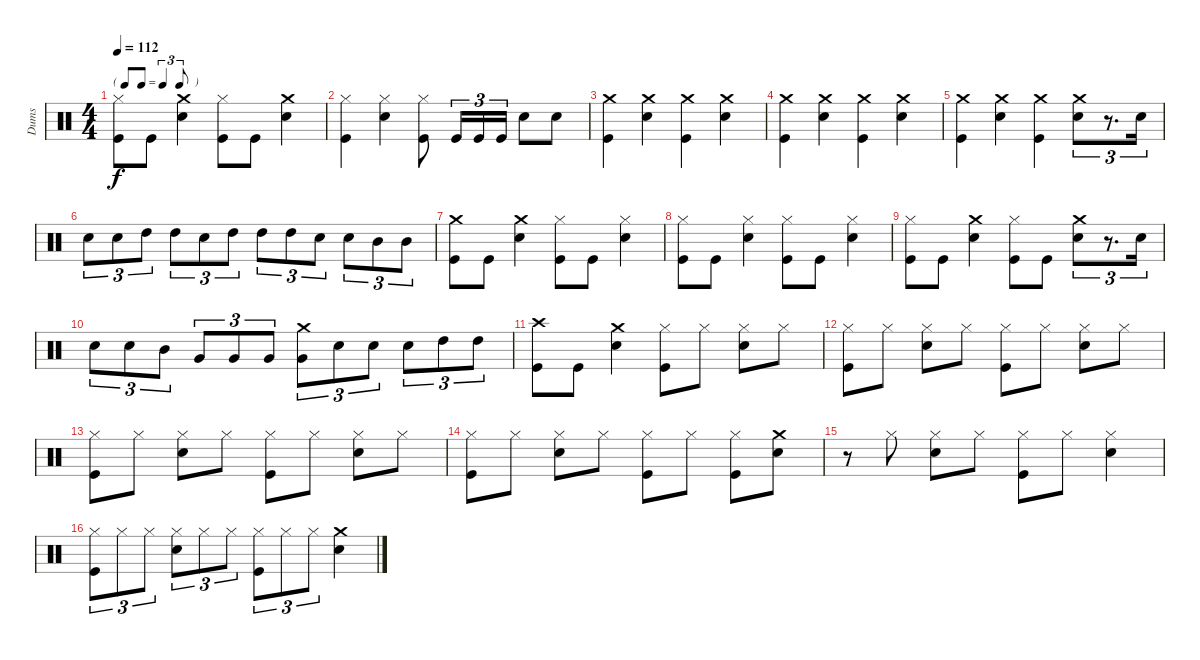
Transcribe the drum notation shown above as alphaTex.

\track ("Dums" "Dums") {instrument percussion}
\staff {score}
\articulation defaults
\ts (4 4)
\tf triplet8th
\tempo 112
\clef neutral
\ks c
("Kick (hit)" "Hi-Hat (closed)").8{dy f} "Kick (hit)".8 ("Electric Snare (hit)" "Crash medium (hit)").4 ("Kick (hit)" "Hi-Hat (closed)").8 "Kick (hit)".8 ("Electric Snare (hit)" "Crash medium (hit)").4 |
("Kick (hit)" "Hi-Hat (closed)").4 ("Electric Snare (hit)" "Hi-Hat (closed)").4 ("Kick (hit)" "Hi-Hat (closed)").8 "Kick (hit)".16{tu (3 2)} "Kick (hit)".16{tu (3 2)} "Kick (hit)".16{tu (3 2)} "Electric Snare (hit)".8 "Electric Snare (hit)".8 |
("Kick (hit)" "Crash medium (hit)").4 ("Electric Snare (hit)" "Crash medium (hit)").4 ("Kick (hit)" "Crash medium (hit)").4 ("Electric Snare (hit)" "Crash medium (hit)").4 |
("Kick (hit)" "Crash medium (hit)").4 ("Electric Snare (hit)" "Crash medium (hit)").4 ("Kick (hit)" "Crash medium (hit)").4 ("Electric Snare (hit)" "Crash medium (hit)").4 |
("Kick (hit)" "Crash medium (hit)").4 ("Electric Snare (hit)" "Crash medium (hit)").4 ("Kick (hit)" "Crash medium (hit)").4 ("Electric Snare (hit)" "Crash medium (hit)").8{tu (3 2)} r.8{d tu (3 2)} "Electric Snare (hit)".16{tu (3 2)} |
"Electric Snare (hit)".8{tu (3 2)} "Electric Snare (hit)".8{tu (3 2)} "High Tom (hit)".8{tu (3 2)} "High Tom (hit)".8{tu (3 2)} "Electric Snare (hit)".8{tu (3 2)} "High Tom (hit)".8{tu (3 2)} "High Tom (hit)".8{tu (3 2)} "High Tom (hit)".8{tu (3 2)} "Electric Snare (hit)".8{tu (3 2)} "Electric Snare (hit)".8{tu (3 2)} "Mid Tom (hit)".8{tu (3 2)} "Mid Tom (hit)".8{tu (3 2)} |
("Kick (hit)" "Crash medium (hit)").8 "Kick (hit)".8 ("Electric Snare (hit)" "Crash medium (hit)").4 ("Kick (hit)" "Hi-Hat (closed)").8 "Kick (hit)".8 ("Electric Snare (hit)" "Hi-Hat (closed)").4 |
("Kick (hit)" "Hi-Hat (closed)").8 "Kick (hit)".8 ("Electric Snare (hit)" "Hi-Hat (closed)").4 ("Kick (hit)" "Hi-Hat (closed)").8 "Kick (hit)".8 ("Electric Snare (hit)" "Hi-Hat (closed)").4 |
("Kick (hit)" "Hi-Hat (closed)").8 "Kick (hit)".8 ("Electric Snare (hit)" "Crash medium (hit)").4 ("Kick (hit)" "Hi-Hat (closed)").8 "Kick (hit)".8 ("Electric Snare (hit)" "Crash medium (hit)").8{tu (3 2)} r.8{d tu (3 2)} "Electric Snare (hit)".16{tu (3 2)} |
"Electric Snare (hit)".8{tu (3 2)} "Electric Snare (hit)".8{tu (3 2)} "Mid Tom (hit)".8{tu (3 2)} "Very Low Tom (hit)".8{tu (3 2)} "Very Low Tom (hit)".8{tu (3 2)} "Very Low Tom (hit)".8{tu (3 2)} ("Very Low Tom (hit)" "Crash medium (hit)").8{tu (3 2)} "Electric Snare (hit)".8{tu (3 2)} "Electric Snare (hit)".8{tu (3 2)} "Electric Snare (hit)".8{tu (3 2)} "High Tom (hit)".8{tu (3 2)} "High Tom (hit)".8{tu (3 2)} |
("Kick (hit)" "Crash high (hit)").8 "Kick (hit)".8 ("Electric Snare (hit)" "Crash medium (hit)").4 ("Kick (hit)" "Hi-Hat (closed)").8 "Hi-Hat (closed)".8 ("Electric Snare (hit)" "Hi-Hat (closed)").8 "Hi-Hat (closed)".8 |
("Kick (hit)" "Hi-Hat (closed)").8 "Hi-Hat (closed)".8 ("Electric Snare (hit)" "Hi-Hat (closed)").8 "Hi-Hat (closed)".8 ("Kick (hit)" "Hi-Hat (closed)").8 "Hi-Hat (closed)".8 ("Electric Snare (hit)" "Hi-Hat (closed)").8 "Hi-Hat (closed)".8 |
("Kick (hit)" "Hi-Hat (closed)").8 "Hi-Hat (closed)".8 ("Electric Snare (hit)" "Hi-Hat (closed)").8 "Hi-Hat (closed)".8 ("Kick (hit)" "Hi-Hat (closed)").8 "Hi-Hat (closed)".8 ("Electric Snare (hit)" "Hi-Hat (closed)").8 "Hi-Hat (closed)".8 |
("Kick (hit)" "Hi-Hat (closed)").8 "Hi-Hat (closed)".8 ("Electric Snare (hit)" "Hi-Hat (closed)").8 "Hi-Hat (closed)".8 ("Kick (hit)" "Hi-Hat (closed)").8 "Hi-Hat (closed)".8 ("Kick (hit)" "Hi-Hat (closed)").8 ("Electric Snare (hit)" "Crash medium (hit)").8 |
r.8 "Hi-Hat (closed)".8 ("Electric Snare (hit)" "Hi-Hat (closed)").8 "Hi-Hat (closed)".8 ("Kick (hit)" "Hi-Hat (closed)").8 "Hi-Hat (closed)".8 ("Electric Snare (hit)" "Hi-Hat (closed)").4 |
("Kick (hit)" "Hi-Hat (closed)").8{tu (3 2)} "Hi-Hat (closed)".8{tu (3 2)} "Hi-Hat (closed)".8{tu (3 2)} ("Electric Snare (hit)" "Hi-Hat (closed)").8{tu (3 2)} "Hi-Hat (closed)".8{tu (3 2)} "Hi-Hat (closed)".8{tu (3 2)} ("Kick (hit)" "Hi-Hat (closed)").8{tu (3 2)} "Hi-Hat (closed)".8{tu (3 2)} "Hi-Hat (closed)".8{tu (3 2)} ("Electric Snare (hit)" "Crash medium (hit)").4
